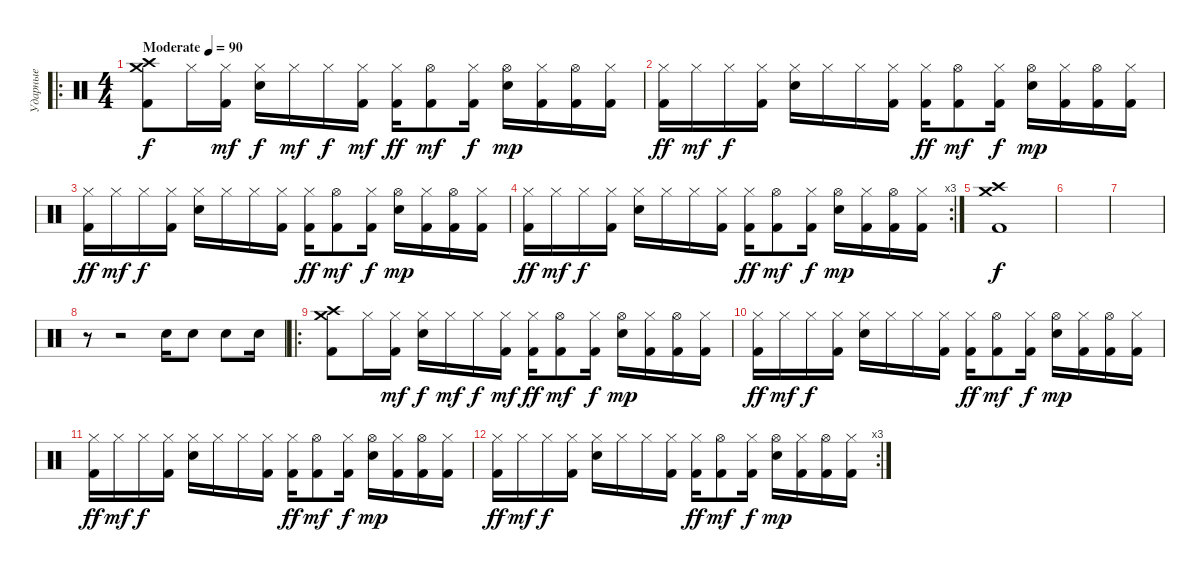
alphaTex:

\track ("Ударные" "Ударные") {instrument percussion}
\staff {score}
\articulation defaults
\ro
\ts (4 4)
\tempo (90 "Moderate")
\clef neutral
\ks c
("Crash high (hit)" "Crash medium (hit)" "Kick (hit) 2").8{dy f} "Hi-Hat (closed)".16 ("Hi-Hat (closed)" "Kick (hit) 2").16{dy mf} ("Hi-Hat (closed)" "Snare (hit) 2").16{dy f} "Hi-Hat (closed)".16{dy mf} "Hi-Hat (closed)".16{dy f} ("Hi-Hat (closed)" "Kick (hit) 2").16{dy mf} ("Hi-Hat (closed)" "Kick (hit) 2").16{dy ff} ("Hi-Hat (open)" "Kick (hit) 2").8{dy mf} ("Hi-Hat (closed)" "Kick (hit) 2").16{dy f} ("Hi-Hat (open)" "Snare (hit) 2").16{dy mp} ("Hi-Hat (closed)" "Kick (hit) 2").16 ("Hi-Hat (open)" "Kick (hit) 2").16 ("Hi-Hat (closed)" "Kick (hit) 2").16 |
("Hi-Hat (closed)" "Kick (hit) 2").16{dy ff} "Hi-Hat (closed)".16{dy mf} "Hi-Hat (closed)".16{dy f} ("Hi-Hat (closed)" "Kick (hit) 2").16 ("Hi-Hat (closed)" "Snare (hit) 2").16 "Hi-Hat (closed)".16 "Hi-Hat (closed)".16 ("Hi-Hat (closed)" "Kick (hit) 2").16 ("Hi-Hat (closed)" "Kick (hit) 2").16{dy ff} ("Hi-Hat (open)" "Kick (hit) 2").8{dy mf} ("Hi-Hat (closed)" "Kick (hit) 2").16{dy f} ("Hi-Hat (open)" "Snare (hit) 2").16{dy mp} ("Hi-Hat (closed)" "Kick (hit) 2").16 ("Hi-Hat (open)" "Kick (hit) 2").16 ("Hi-Hat (closed)" "Kick (hit) 2").16 |
("Hi-Hat (closed)" "Kick (hit) 2").16{dy ff} "Hi-Hat (closed)".16{dy mf} "Hi-Hat (closed)".16{dy f} ("Hi-Hat (closed)" "Kick (hit) 2").16 ("Hi-Hat (closed)" "Snare (hit) 2").16 "Hi-Hat (closed)".16 "Hi-Hat (closed)".16 ("Hi-Hat (closed)" "Kick (hit) 2").16 ("Hi-Hat (closed)" "Kick (hit) 2").16{dy ff} ("Hi-Hat (open)" "Kick (hit) 2").8{dy mf} ("Hi-Hat (closed)" "Kick (hit) 2").16{dy f} ("Hi-Hat (open)" "Snare (hit) 2").16{dy mp} ("Hi-Hat (closed)" "Kick (hit) 2").16 ("Hi-Hat (open)" "Kick (hit) 2").16 ("Hi-Hat (closed)" "Kick (hit) 2").16 |
\rc 3
("Hi-Hat (closed)" "Kick (hit) 2").16{dy ff} "Hi-Hat (closed)".16{dy mf} "Hi-Hat (closed)".16{dy f} ("Hi-Hat (closed)" "Kick (hit) 2").16 ("Hi-Hat (closed)" "Snare (hit) 2").16 "Hi-Hat (closed)".16 "Hi-Hat (closed)".16 ("Hi-Hat (closed)" "Kick (hit) 2").16 ("Hi-Hat (closed)" "Kick (hit) 2").16{dy ff} ("Hi-Hat (open)" "Kick (hit) 2").8{dy mf} ("Hi-Hat (closed)" "Kick (hit) 2").16{dy f} ("Hi-Hat (open)" "Snare (hit) 2").16{dy mp} ("Hi-Hat (closed)" "Kick (hit) 2").16 ("Hi-Hat (open)" "Kick (hit) 2").16 ("Hi-Hat (closed)" "Kick (hit) 2").16 |
("Crash high (hit)" "Crash medium (hit)" "Kick (hit) 2").1{dy f} |
|
|
r.8 r.2 "Snare (hit) 2".16 "Snare (hit) 2".8 "Snare (hit) 2".8 "Snare (hit) 2".16 |
\ro
("Crash high (hit)" "Crash medium (hit)" "Kick (hit) 2").8 "Hi-Hat (closed)".16 ("Hi-Hat (closed)" "Kick (hit) 2").16{dy mf} ("Hi-Hat (closed)" "Snare (hit) 2").16{dy f} "Hi-Hat (closed)".16{dy mf} "Hi-Hat (closed)".16{dy f} ("Hi-Hat (closed)" "Kick (hit) 2").16{dy mf} ("Hi-Hat (closed)" "Kick (hit) 2").16{dy ff} ("Hi-Hat (open)" "Kick (hit) 2").8{dy mf} ("Hi-Hat (closed)" "Kick (hit) 2").16{dy f} ("Hi-Hat (open)" "Snare (hit) 2").16{dy mp} ("Hi-Hat (closed)" "Kick (hit) 2").16 ("Hi-Hat (open)" "Kick (hit) 2").16 ("Hi-Hat (closed)" "Kick (hit) 2").16 |
("Hi-Hat (closed)" "Kick (hit) 2").16{dy ff} "Hi-Hat (closed)".16{dy mf} "Hi-Hat (closed)".16{dy f} ("Hi-Hat (closed)" "Kick (hit) 2").16 ("Hi-Hat (closed)" "Snare (hit) 2").16 "Hi-Hat (closed)".16 "Hi-Hat (closed)".16 ("Hi-Hat (closed)" "Kick (hit) 2").16 ("Hi-Hat (closed)" "Kick (hit) 2").16{dy ff} ("Hi-Hat (open)" "Kick (hit) 2").8{dy mf} ("Hi-Hat (closed)" "Kick (hit) 2").16{dy f} ("Hi-Hat (open)" "Snare (hit) 2").16{dy mp} ("Hi-Hat (closed)" "Kick (hit) 2").16 ("Hi-Hat (open)" "Kick (hit) 2").16 ("Hi-Hat (closed)" "Kick (hit) 2").16 |
("Hi-Hat (closed)" "Kick (hit) 2").16{dy ff} "Hi-Hat (closed)".16{dy mf} "Hi-Hat (closed)".16{dy f} ("Hi-Hat (closed)" "Kick (hit) 2").16 ("Hi-Hat (closed)" "Snare (hit) 2").16 "Hi-Hat (closed)".16 "Hi-Hat (closed)".16 ("Hi-Hat (closed)" "Kick (hit) 2").16 ("Hi-Hat (closed)" "Kick (hit) 2").16{dy ff} ("Hi-Hat (open)" "Kick (hit) 2").8{dy mf} ("Hi-Hat (closed)" "Kick (hit) 2").16{dy f} ("Hi-Hat (open)" "Snare (hit) 2").16{dy mp} ("Hi-Hat (closed)" "Kick (hit) 2").16 ("Hi-Hat (open)" "Kick (hit) 2").16 ("Hi-Hat (closed)" "Kick (hit) 2").16 |
\rc 3
("Hi-Hat (closed)" "Kick (hit) 2").16{dy ff} "Hi-Hat (closed)".16{dy mf} "Hi-Hat (closed)".16{dy f} ("Hi-Hat (closed)" "Kick (hit) 2").16 ("Hi-Hat (closed)" "Snare (hit) 2").16 "Hi-Hat (closed)".16 "Hi-Hat (closed)".16 ("Hi-Hat (closed)" "Kick (hit) 2").16 ("Hi-Hat (closed)" "Kick (hit) 2").16{dy ff} ("Hi-Hat (open)" "Kick (hit) 2").8{dy mf} ("Hi-Hat (closed)" "Kick (hit) 2").16{dy f} ("Hi-Hat (open)" "Snare (hit) 2").16{dy mp} ("Hi-Hat (closed)" "Kick (hit) 2").16 ("Hi-Hat (open)" "Kick (hit) 2").16 ("Hi-Hat (closed)" "Kick (hit) 2").16
